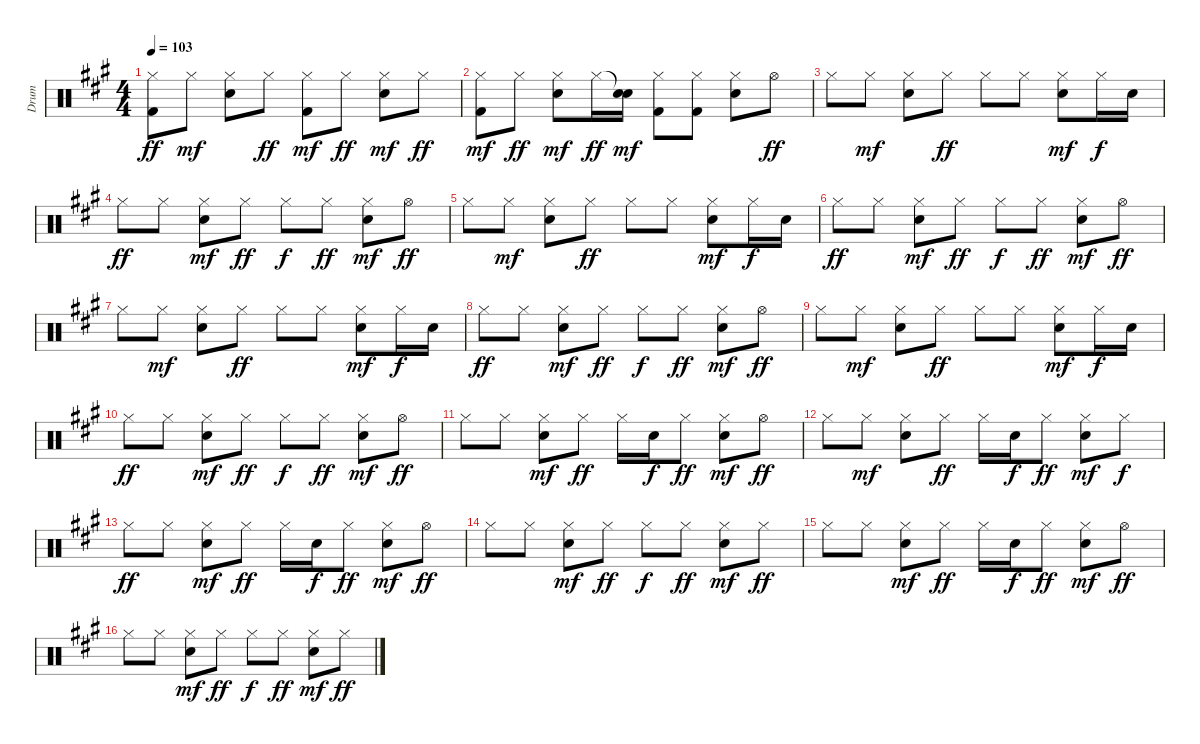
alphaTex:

\track ("Drum" "Drum") {instrument percussion}
\staff {score}
\articulation defaults
\ts (4 4)
\tempo 103
\clef neutral
\ks a
("Hi-Hat (closed)" "Kick (hit) 2").8{dy ff} "Hi-Hat (closed)".8{dy mf} ("Hi-Hat (closed)" "Electric Snare (hit)").8 "Hi-Hat (closed)".8{dy ff} ("Hi-Hat (closed)" "Kick (hit) 2").8{dy mf} "Hi-Hat (closed)".8{dy ff} ("Hi-Hat (closed)" "Electric Snare (hit)").8{dy mf} "Hi-Hat (closed)".8{dy ff} |
("Hi-Hat (closed)" "Kick (hit) 2").8{dy mf} "Hi-Hat (closed)".8{dy ff} ("Hi-Hat (closed)" "Electric Snare (hit)").8{dy mf} "Hi-Hat (closed)".16{dy ff} ("Snare (hit)"{t} "Electric Snare (hit)").16{dy mf} ("Hi-Hat (closed)" "Kick (hit) 2").8 ("Hi-Hat (closed)" "Kick (hit) 2").8 ("Hi-Hat (closed)" "Electric Snare (hit)").8 "Hi-Hat (open)".8{dy ff} |
"Hi-Hat (closed)".8 "Hi-Hat (closed)".8{dy mf} ("Hi-Hat (closed)" "Electric Snare (hit)").8 "Hi-Hat (closed)".8{dy ff} "Hi-Hat (closed)".8 "Hi-Hat (closed)".8 ("Hi-Hat (closed)" "Electric Snare (hit)").8{dy mf} "Hi-Hat (closed)".16{dy f} "Electric Snare (hit)".16 |
"Hi-Hat (closed)".8{dy ff} "Hi-Hat (closed)".8 ("Hi-Hat (closed)" "Electric Snare (hit)").8{dy mf} "Hi-Hat (closed)".8{dy ff} "Hi-Hat (closed)".8{dy f} "Hi-Hat (closed)".8{dy ff} ("Hi-Hat (closed)" "Electric Snare (hit)").8{dy mf} "Hi-Hat (open)".8{dy ff} |
"Hi-Hat (closed)".8 "Hi-Hat (closed)".8{dy mf} ("Hi-Hat (closed)" "Electric Snare (hit)").8 "Hi-Hat (closed)".8{dy ff} "Hi-Hat (closed)".8 "Hi-Hat (closed)".8 ("Hi-Hat (closed)" "Electric Snare (hit)").8{dy mf} "Hi-Hat (closed)".16{dy f} "Electric Snare (hit)".16 |
"Hi-Hat (closed)".8{dy ff} "Hi-Hat (closed)".8 ("Hi-Hat (closed)" "Electric Snare (hit)").8{dy mf} "Hi-Hat (closed)".8{dy ff} "Hi-Hat (closed)".8{dy f} "Hi-Hat (closed)".8{dy ff} ("Hi-Hat (closed)" "Electric Snare (hit)").8{dy mf} "Hi-Hat (open)".8{dy ff} |
"Hi-Hat (closed)".8 "Hi-Hat (closed)".8{dy mf} ("Hi-Hat (closed)" "Electric Snare (hit)").8 "Hi-Hat (closed)".8{dy ff} "Hi-Hat (closed)".8 "Hi-Hat (closed)".8 ("Hi-Hat (closed)" "Electric Snare (hit)").8{dy mf} "Hi-Hat (closed)".16{dy f} "Electric Snare (hit)".16 |
"Hi-Hat (closed)".8{dy ff} "Hi-Hat (closed)".8 ("Hi-Hat (closed)" "Electric Snare (hit)").8{dy mf} "Hi-Hat (closed)".8{dy ff} "Hi-Hat (closed)".8{dy f} "Hi-Hat (closed)".8{dy ff} ("Hi-Hat (closed)" "Electric Snare (hit)").8{dy mf} "Hi-Hat (open)".8{dy ff} |
"Hi-Hat (closed)".8 "Hi-Hat (closed)".8{dy mf} ("Hi-Hat (closed)" "Electric Snare (hit)").8 "Hi-Hat (closed)".8{dy ff} "Hi-Hat (closed)".8 "Hi-Hat (closed)".8 ("Hi-Hat (closed)" "Electric Snare (hit)").8{dy mf} "Hi-Hat (closed)".16{dy f} "Electric Snare (hit)".16 |
"Hi-Hat (closed)".8{dy ff} "Hi-Hat (closed)".8 ("Hi-Hat (closed)" "Electric Snare (hit)").8{dy mf} "Hi-Hat (closed)".8{dy ff} "Hi-Hat (closed)".8{dy f} "Hi-Hat (closed)".8{dy ff} ("Hi-Hat (closed)" "Electric Snare (hit)").8{dy mf} "Hi-Hat (open)".8{dy ff} |
"Hi-Hat (closed)".8 "Hi-Hat (closed)".8 ("Hi-Hat (closed)" "Electric Snare (hit)").8{dy mf} "Hi-Hat (closed)".8{dy ff} "Hi-Hat (closed)".16 "Electric Snare (hit)".16{dy f} "Hi-Hat (closed)".8{dy ff} ("Hi-Hat (closed)" "Electric Snare (hit)").8{dy mf} "Hi-Hat (open)".8{dy ff} |
"Hi-Hat (closed)".8 "Hi-Hat (closed)".8{dy mf} ("Hi-Hat (closed)" "Electric Snare (hit)").8 "Hi-Hat (closed)".8{dy ff} "Hi-Hat (closed)".16 "Electric Snare (hit)".16{dy f} "Hi-Hat (closed)".8{dy ff} ("Hi-Hat (closed)" "Electric Snare (hit)").8{dy mf} "Hi-Hat (closed)".8{dy f} |
"Hi-Hat (closed)".8{dy ff} "Hi-Hat (closed)".8 ("Hi-Hat (closed)" "Electric Snare (hit)").8{dy mf} "Hi-Hat (closed)".8{dy ff} "Hi-Hat (closed)".16 "Electric Snare (hit)".16{dy f} "Hi-Hat (closed)".8{dy ff} ("Hi-Hat (closed)" "Electric Snare (hit)").8{dy mf} "Hi-Hat (open)".8{dy ff} |
"Hi-Hat (closed)".8 "Hi-Hat (closed)".8 ("Hi-Hat (closed)" "Electric Snare (hit)").8{dy mf} "Hi-Hat (closed)".8{dy ff} "Hi-Hat (closed)".8{dy f} "Hi-Hat (closed)".8{dy ff} ("Hi-Hat (closed)" "Electric Snare (hit)").8{dy mf} "Hi-Hat (closed)".8{dy ff} |
"Hi-Hat (closed)".8 "Hi-Hat (closed)".8 ("Hi-Hat (closed)" "Electric Snare (hit)").8{dy mf} "Hi-Hat (closed)".8{dy ff} "Hi-Hat (closed)".16 "Electric Snare (hit)".16{dy f} "Hi-Hat (closed)".8{dy ff} ("Hi-Hat (closed)" "Electric Snare (hit)").8{dy mf} "Hi-Hat (open)".8{dy ff} |
"Hi-Hat (closed)".8 "Hi-Hat (closed)".8 ("Hi-Hat (closed)" "Electric Snare (hit)").8{dy mf} "Hi-Hat (closed)".8{dy ff} "Hi-Hat (closed)".8{dy f} "Hi-Hat (closed)".8{dy ff} ("Hi-Hat (closed)" "Electric Snare (hit)").8{dy mf} "Hi-Hat (closed)".8{dy ff}
